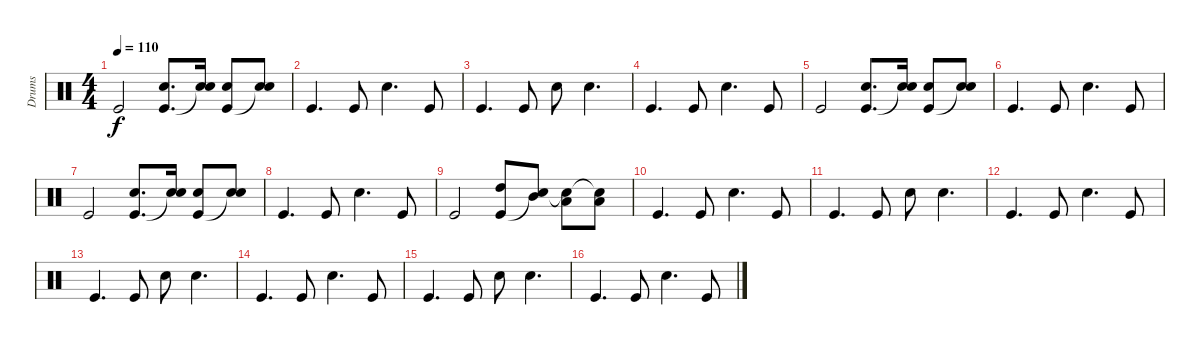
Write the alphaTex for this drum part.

\track ("Drums" "Drums") {instrument percussion}
\staff {score}
\articulation defaults
\ts (4 4)
\tempo 110
\clef neutral
\ks c "Kick (hit)".2{dy f}
("Kick (hit)" "Snare (hit) 2").8{d} ("Snare (hit)"{t} "Snare (hit) 2").16 ("Kick (hit)" "Snare (hit) 2").8 ("Snare (hit)"{t} "Snare (hit) 2").8 |
"Kick (hit)".4{d} "Kick (hit)".8 "Snare (hit) 2".4{d} "Kick (hit)".8 |
"Kick (hit)".4{d} "Kick (hit)".8 "Snare (hit) 2".8 "Snare (hit) 2".4{d} |
"Kick (hit)".4{d} "Kick (hit)".8 "Snare (hit) 2".4{d} "Kick (hit)".8 |
"Kick (hit)".2 ("Kick (hit)" "Snare (hit) 2").8{d} ("Snare (hit)"{t} "Snare (hit) 2").16 ("Kick (hit)" "Snare (hit) 2").8 ("Snare (hit)"{t} "Snare (hit) 2").8 |
"Kick (hit)".4{d} "Kick (hit)".8 "Snare (hit) 2".4{d} "Kick (hit)".8 |
"Kick (hit)".2 ("Kick (hit)" "Snare (hit) 2").8{d} ("Snare (hit)"{t} "Snare (hit) 2").16 ("Kick (hit)" "Snare (hit) 2").8 ("Snare (hit)"{t} "Snare (hit) 2").8 |
"Kick (hit)".4{d} "Kick (hit)".8 "Snare (hit) 2".4{d} "Kick (hit)".8 |
"Kick (hit)".2 ("High Tom (hit)" "Kick (hit)").8 ("Mid Tom (hit)" "Snare (hit)"{t}).8 ("Low Tom (hit)" "Snare (hit) 2"{t}).8 ("Low Floor Tom (hit)" "Snare (hit) 2"{t}).8 |
"Kick (hit)".4{d} "Kick (hit)".8 "Snare (hit) 2".4{d} "Kick (hit)".8 |
"Kick (hit)".4{d} "Kick (hit)".8 "Snare (hit) 2".8 "Snare (hit) 2".4{d} |
"Kick (hit)".4{d} "Kick (hit)".8 "Snare (hit) 2".4{d} "Kick (hit)".8 |
"Kick (hit)".4{d} "Kick (hit)".8 "Snare (hit) 2".8 "Snare (hit) 2".4{d} |
"Kick (hit)".4{d} "Kick (hit)".8 "Snare (hit) 2".4{d} "Kick (hit)".8 |
"Kick (hit)".4{d} "Kick (hit)".8 "Snare (hit) 2".8 "Snare (hit) 2".4{d} |
"Kick (hit)".4{d} "Kick (hit)".8 "Snare (hit) 2".4{d} "Kick (hit)".8
